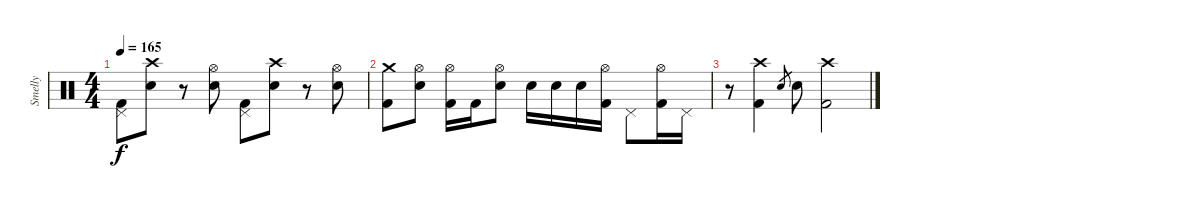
\track ("Smelly" "Smelly") {instrument percussion}
\staff {score}
\articulation defaults
\ts (4 4)
\tempo 165
\clef neutral
\ks c
("Pedal Hi-Hat (hit)" "Kick (hit) 2").8{dy f} ("Crash high (hit)" "Electric Snare (hit)").8 r.8 ("Hi-Hat (open)" "Electric Snare (hit)").8 ("Pedal Hi-Hat (hit)" "Kick (hit) 2").8 ("Crash high (hit)" "Electric Snare (hit)").8 r.8 ("Hi-Hat (open)" "Electric Snare (hit)").8 |
("Crash medium (hit)" "Kick (hit) 2").8 ("Hi-Hat (open)" "Electric Snare (hit)").8 ("Hi-Hat (open)" "Kick (hit) 2").16 "Kick (hit) 2".16 ("Hi-Hat (open)" "Electric Snare (hit)").8 "Electric Snare (hit)".16 "Electric Snare (hit)".16 "Electric Snare (hit)".16 ("Hi-Hat (open)" "Kick (hit) 2").16 "Pedal Hi-Hat (hit)".8 ("Hi-Hat (open)" "Kick (hit) 2").16 "Pedal Hi-Hat (hit)".16 |
r.8 ("Crash high (hit)" "Kick (hit) 2").4 "Electric Snare (hit)".8{gr} "Electric Snare (hit)".8 ("Crash high (hit)" "Kick (hit) 2").2
